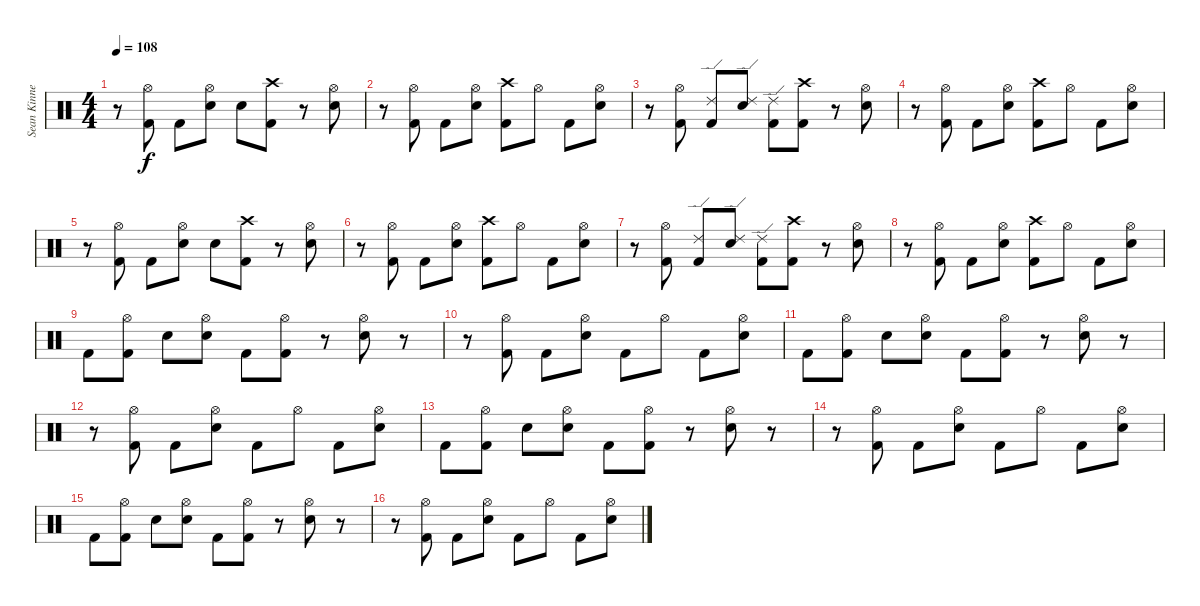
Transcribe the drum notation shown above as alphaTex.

\track ("Sean Kinney" "Sean Kinne") {instrument percussion}
\staff {score}
\articulation defaults
\ts (4 4)
\tempo 108
\clef neutral
\ks c
r.8{dy f} ("Hi-Hat (open)" "Kick (hit) 2").8 "Kick (hit) 2".8 ("Hi-Hat (open)" "Electric Snare (hit)").8 "Electric Snare (hit)".8 ("Crash high (hit)" "Kick (hit) 2").8 r.8 ("Hi-Hat (open)" "Electric Snare (hit)").8 |
r.8 ("Hi-Hat (open)" "Kick (hit) 2").8 "Kick (hit) 2".8 ("Hi-Hat (open)" "Electric Snare (hit)").8 ("Crash high (hit)" "Kick (hit) 2").8 "Hi-Hat (open)".8 "Kick (hit) 2".8 ("Hi-Hat (open)" "Electric Snare (hit)").8 |
r.8 ("Hi-Hat (open)" "Kick (hit) 2").8 ("Ride (edge) 2" "Kick (hit) 2").8 ("Ride (edge) 2" "Electric Snare (hit)").8 ("Ride (edge) 2" "Kick (hit) 2").8 ("Crash high (hit)" "Kick (hit) 2").8 r.8 ("Hi-Hat (open)" "Electric Snare (hit)").8 |
r.8 ("Hi-Hat (open)" "Kick (hit) 2").8 "Kick (hit) 2".8 ("Hi-Hat (open)" "Electric Snare (hit)").8 ("Crash high (hit)" "Kick (hit) 2").8 "Hi-Hat (open)".8 "Kick (hit) 2".8 ("Hi-Hat (open)" "Electric Snare (hit)").8 |
r.8 ("Hi-Hat (open)" "Kick (hit) 2").8 "Kick (hit) 2".8 ("Hi-Hat (open)" "Electric Snare (hit)").8 "Electric Snare (hit)".8 ("Crash high (hit)" "Kick (hit) 2").8 r.8 ("Hi-Hat (open)" "Electric Snare (hit)").8 |
r.8 ("Hi-Hat (open)" "Kick (hit) 2").8 "Kick (hit) 2".8 ("Hi-Hat (open)" "Electric Snare (hit)").8 ("Crash high (hit)" "Kick (hit) 2").8 "Hi-Hat (open)".8 "Kick (hit) 2".8 ("Hi-Hat (open)" "Electric Snare (hit)").8 |
r.8 ("Hi-Hat (open)" "Kick (hit) 2").8 ("Ride (edge) 2" "Kick (hit) 2").8 ("Ride (edge) 2" "Electric Snare (hit)").8 ("Ride (edge) 2" "Kick (hit) 2").8 ("Crash high (hit)" "Kick (hit) 2").8 r.8 ("Hi-Hat (open)" "Electric Snare (hit)").8 |
r.8 ("Hi-Hat (open)" "Kick (hit) 2").8 "Kick (hit) 2".8 ("Hi-Hat (open)" "Electric Snare (hit)").8 ("Crash high (hit)" "Kick (hit) 2").8 "Hi-Hat (open)".8 "Kick (hit) 2".8 ("Hi-Hat (open)" "Electric Snare (hit)").8 |
"Kick (hit) 2".8 ("Hi-Hat (open)" "Kick (hit) 2").8 "Electric Snare (hit)".8 ("Hi-Hat (open)" "Electric Snare (hit)").8 "Kick (hit) 2".8 ("Hi-Hat (open)" "Kick (hit) 2").8 r.8 ("Hi-Hat (open)" "Electric Snare (hit)").8 r.8 |
r.8 ("Hi-Hat (open)" "Kick (hit) 2").8 "Kick (hit) 2".8 ("Hi-Hat (open)" "Electric Snare (hit)").8 "Kick (hit) 2".8 "Hi-Hat (open)".8 "Kick (hit) 2".8 ("Hi-Hat (open)" "Electric Snare (hit)").8 |
"Kick (hit) 2".8 ("Hi-Hat (open)" "Kick (hit) 2").8 "Electric Snare (hit)".8 ("Hi-Hat (open)" "Electric Snare (hit)").8 "Kick (hit) 2".8 ("Hi-Hat (open)" "Kick (hit) 2").8 r.8 ("Hi-Hat (open)" "Electric Snare (hit)").8 r.8 |
r.8 ("Hi-Hat (open)" "Kick (hit) 2").8 "Kick (hit) 2".8 ("Hi-Hat (open)" "Electric Snare (hit)").8 "Kick (hit) 2".8 "Hi-Hat (open)".8 "Kick (hit) 2".8 ("Hi-Hat (open)" "Electric Snare (hit)").8 |
"Kick (hit) 2".8 ("Hi-Hat (open)" "Kick (hit) 2").8 "Electric Snare (hit)".8 ("Hi-Hat (open)" "Electric Snare (hit)").8 "Kick (hit) 2".8 ("Hi-Hat (open)" "Kick (hit) 2").8 r.8 ("Hi-Hat (open)" "Electric Snare (hit)").8 r.8 |
r.8 ("Hi-Hat (open)" "Kick (hit) 2").8 "Kick (hit) 2".8 ("Hi-Hat (open)" "Electric Snare (hit)").8 "Kick (hit) 2".8 "Hi-Hat (open)".8 "Kick (hit) 2".8 ("Hi-Hat (open)" "Electric Snare (hit)").8 |
"Kick (hit) 2".8 ("Hi-Hat (open)" "Kick (hit) 2").8 "Electric Snare (hit)".8 ("Hi-Hat (open)" "Electric Snare (hit)").8 "Kick (hit) 2".8 ("Hi-Hat (open)" "Kick (hit) 2").8 r.8 ("Hi-Hat (open)" "Electric Snare (hit)").8 r.8 |
r.8 ("Hi-Hat (open)" "Kick (hit) 2").8 "Kick (hit) 2".8 ("Hi-Hat (open)" "Electric Snare (hit)").8 "Kick (hit) 2".8 "Hi-Hat (open)".8 "Kick (hit) 2".8 ("Hi-Hat (open)" "Electric Snare (hit)").8
